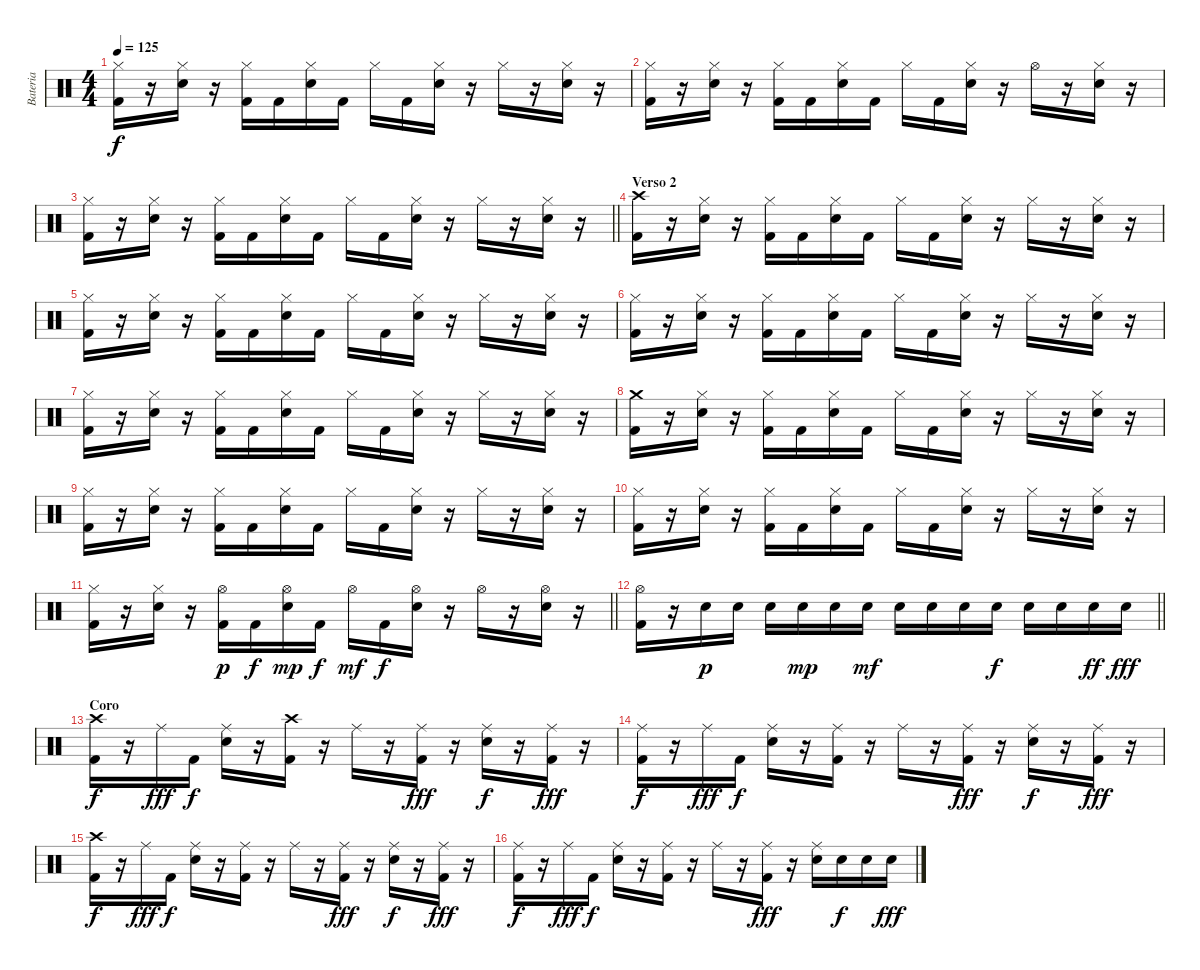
\track ("Bateria" "Bateria") {instrument percussion}
\staff {score}
\articulation defaults
\ts (4 4)
\tempo 125
\clef neutral
\ks c
("Hi-Hat (closed)" "Kick (hit) 2").16{dy f} r.16 ("Hi-Hat (closed)" "Electric Snare (hit)").16 r.16 ("Hi-Hat (closed)" "Kick (hit) 2").16 "Kick (hit) 2".16 ("Hi-Hat (closed)" "Electric Snare (hit)").16 "Kick (hit) 2".16 "Hi-Hat (closed)".16 "Kick (hit) 2".16 ("Hi-Hat (closed)" "Electric Snare (hit)").16 r.16 "Hi-Hat (closed)".16 r.16 ("Hi-Hat (closed)" "Electric Snare (hit)").16 r.16 |
("Hi-Hat (closed)" "Kick (hit) 2").16 r.16 ("Hi-Hat (closed)" "Electric Snare (hit)").16 r.16 ("Hi-Hat (closed)" "Kick (hit) 2").16 "Kick (hit) 2".16 ("Hi-Hat (closed)" "Electric Snare (hit)").16 "Kick (hit) 2".16 "Hi-Hat (closed)".16 "Kick (hit) 2".16 ("Hi-Hat (closed)" "Electric Snare (hit)").16 r.16 "Hi-Hat (open)".16 r.16 ("Hi-Hat (closed)" "Electric Snare (hit)").16 r.16 |
\barLineRight lightlight
("Hi-Hat (closed)" "Kick (hit) 2").16 r.16 ("Hi-Hat (closed)" "Electric Snare (hit)").16 r.16 ("Hi-Hat (closed)" "Kick (hit) 2").16 "Kick (hit) 2".16 ("Hi-Hat (closed)" "Electric Snare (hit)").16 "Kick (hit) 2".16 "Hi-Hat (closed)".16 "Kick (hit) 2".16 ("Hi-Hat (closed)" "Electric Snare (hit)").16 r.16 "Hi-Hat (closed)".16 r.16 ("Hi-Hat (closed)" "Electric Snare (hit)").16 r.16 |
\section ("" "Verso 2")
("Crash high (hit)" "Kick (hit) 2").16 r.16 ("Hi-Hat (closed)" "Electric Snare (hit)").16 r.16 ("Hi-Hat (closed)" "Kick (hit) 2").16 "Kick (hit) 2".16 ("Hi-Hat (closed)" "Electric Snare (hit)").16 "Kick (hit) 2".16 "Hi-Hat (closed)".16 "Kick (hit) 2".16 ("Hi-Hat (closed)" "Electric Snare (hit)").16 r.16 "Hi-Hat (closed)".16 r.16 ("Hi-Hat (closed)" "Electric Snare (hit)").16 r.16 |
("Hi-Hat (closed)" "Kick (hit) 2").16 r.16 ("Hi-Hat (closed)" "Electric Snare (hit)").16 r.16 ("Hi-Hat (closed)" "Kick (hit) 2").16 "Kick (hit) 2".16 ("Hi-Hat (closed)" "Electric Snare (hit)").16 "Kick (hit) 2".16 "Hi-Hat (closed)".16 "Kick (hit) 2".16 ("Hi-Hat (closed)" "Electric Snare (hit)").16 r.16 "Hi-Hat (closed)".16 r.16 ("Hi-Hat (closed)" "Electric Snare (hit)").16 r.16 |
("Hi-Hat (closed)" "Kick (hit) 2").16 r.16 ("Hi-Hat (closed)" "Electric Snare (hit)").16 r.16 ("Hi-Hat (closed)" "Kick (hit) 2").16 "Kick (hit) 2".16 ("Hi-Hat (closed)" "Electric Snare (hit)").16 "Kick (hit) 2".16 "Hi-Hat (closed)".16 "Kick (hit) 2".16 ("Hi-Hat (closed)" "Electric Snare (hit)").16 r.16 "Hi-Hat (closed)".16 r.16 ("Hi-Hat (closed)" "Electric Snare (hit)").16 r.16 |
("Hi-Hat (closed)" "Kick (hit) 2").16 r.16 ("Hi-Hat (closed)" "Electric Snare (hit)").16 r.16 ("Hi-Hat (closed)" "Kick (hit) 2").16 "Kick (hit) 2".16 ("Hi-Hat (closed)" "Electric Snare (hit)").16 "Kick (hit) 2".16 "Hi-Hat (closed)".16 "Kick (hit) 2".16 ("Hi-Hat (closed)" "Electric Snare (hit)").16 r.16 "Hi-Hat (closed)".16 r.16 ("Hi-Hat (closed)" "Electric Snare (hit)").16 r.16 |
("Crash medium (hit)" "Kick (hit) 2").16 r.16 ("Hi-Hat (closed)" "Electric Snare (hit)").16 r.16 ("Hi-Hat (closed)" "Kick (hit) 2").16 "Kick (hit) 2".16 ("Hi-Hat (closed)" "Electric Snare (hit)").16 "Kick (hit) 2".16 "Hi-Hat (closed)".16 "Kick (hit) 2".16 ("Hi-Hat (closed)" "Electric Snare (hit)").16 r.16 "Hi-Hat (closed)".16 r.16 ("Hi-Hat (closed)" "Electric Snare (hit)").16 r.16 |
("Hi-Hat (closed)" "Kick (hit) 2").16 r.16 ("Hi-Hat (closed)" "Electric Snare (hit)").16 r.16 ("Hi-Hat (closed)" "Kick (hit) 2").16 "Kick (hit) 2".16 ("Hi-Hat (closed)" "Electric Snare (hit)").16 "Kick (hit) 2".16 "Hi-Hat (closed)".16 "Kick (hit) 2".16 ("Hi-Hat (closed)" "Electric Snare (hit)").16 r.16 "Hi-Hat (closed)".16 r.16 ("Hi-Hat (closed)" "Electric Snare (hit)").16 r.16 |
("Hi-Hat (closed)" "Kick (hit) 2").16 r.16 ("Hi-Hat (closed)" "Electric Snare (hit)").16 r.16 ("Hi-Hat (closed)" "Kick (hit) 2").16 "Kick (hit) 2".16 ("Hi-Hat (closed)" "Electric Snare (hit)").16 "Kick (hit) 2".16 "Hi-Hat (closed)".16 "Kick (hit) 2".16 ("Hi-Hat (closed)" "Electric Snare (hit)").16 r.16 "Hi-Hat (closed)".16 r.16 ("Hi-Hat (closed)" "Electric Snare (hit)").16 r.16 |
\barLineRight lightlight
("Hi-Hat (closed)" "Kick (hit) 2").16 r.16 ("Hi-Hat (closed)" "Electric Snare (hit)").16 r.16 ("Hi-Hat (open)" "Kick (hit) 2").16{dy p} "Kick (hit) 2".16{dy f} ("Hi-Hat (open)" "Electric Snare (hit)").16{dy mp} "Kick (hit) 2".16{dy f} "Hi-Hat (open)".16{dy mf} "Kick (hit) 2".16{dy f} ("Hi-Hat (open)" "Electric Snare (hit)").16 r.16 "Hi-Hat (open)".16 r.16 ("Hi-Hat (open)" "Electric Snare (hit)").16 r.16 |
\barLineRight lightlight
("Hi-Hat (open)" "Kick (hit) 2").16 r.16 "Electric Snare (hit)".16{dy p} "Electric Snare (hit)".16 "Electric Snare (hit)".16 "Electric Snare (hit)".16{dy mp} "Electric Snare (hit)".16 "Electric Snare (hit)".16{dy mf} "Electric Snare (hit)".16 "Electric Snare (hit)".16 "Electric Snare (hit)".16 "Electric Snare (hit)".16{dy f} "Electric Snare (hit)".16 "Electric Snare (hit)".16 "Electric Snare (hit)".16{dy ff} "Electric Snare (hit)".16{dy fff} |
\section ("" "Coro")
("Crash high (hit)" "Kick (hit) 2").16{dy f} r.16 "Ride (middle)".16{dy fff} "Kick (hit) 2".16{dy f} ("Ride (middle)" "Electric Snare (hit)").16 r.16 ("Crash high (hit)" "Kick (hit) 2").16 r.16 "Ride (middle)".16 r.16 ("Ride (middle)" "Kick (hit) 2").16{dy fff} r.16 ("Ride (middle)" "Electric Snare (hit)").16{dy f} r.16 ("Ride (middle)" "Kick (hit) 2").16{dy fff} r.16 |
("Ride (middle)" "Kick (hit) 2").16{dy f} r.16 "Ride (middle)".16{dy fff} "Kick (hit) 2".16{dy f} ("Ride (middle)" "Electric Snare (hit)").16 r.16 ("Ride (middle)" "Kick (hit) 2").16 r.16 "Ride (middle)".16 r.16 ("Ride (middle)" "Kick (hit) 2").16{dy fff} r.16 ("Ride (middle)" "Electric Snare (hit)").16{dy f} r.16 ("Ride (middle)" "Kick (hit) 2").16{dy fff} r.16 |
("Crash high (hit)" "Kick (hit) 2").16{dy f} r.16 "Ride (middle)".16{dy fff} "Kick (hit) 2".16{dy f} ("Ride (middle)" "Electric Snare (hit)").16 r.16 ("Ride (middle)" "Kick (hit) 2").16 r.16 "Ride (middle)".16 r.16 ("Ride (middle)" "Kick (hit) 2").16{dy fff} r.16 ("Ride (middle)" "Electric Snare (hit)").16{dy f} r.16 ("Ride (middle)" "Kick (hit) 2").16{dy fff} r.16 |
("Ride (middle)" "Kick (hit) 2").16{dy f} r.16 "Ride (middle)".16{dy fff} "Kick (hit) 2".16{dy f} ("Ride (middle)" "Electric Snare (hit)").16 r.16 ("Ride (middle)" "Kick (hit) 2").16 r.16 "Ride (middle)".16 r.16 ("Ride (middle)" "Kick (hit) 2").16{dy fff} r.16 ("Ride (middle)" "Electric Snare (hit)").16 "Electric Snare (hit)".16{dy f} "Electric Snare (hit)".16 "Electric Snare (hit)".16{dy fff}
